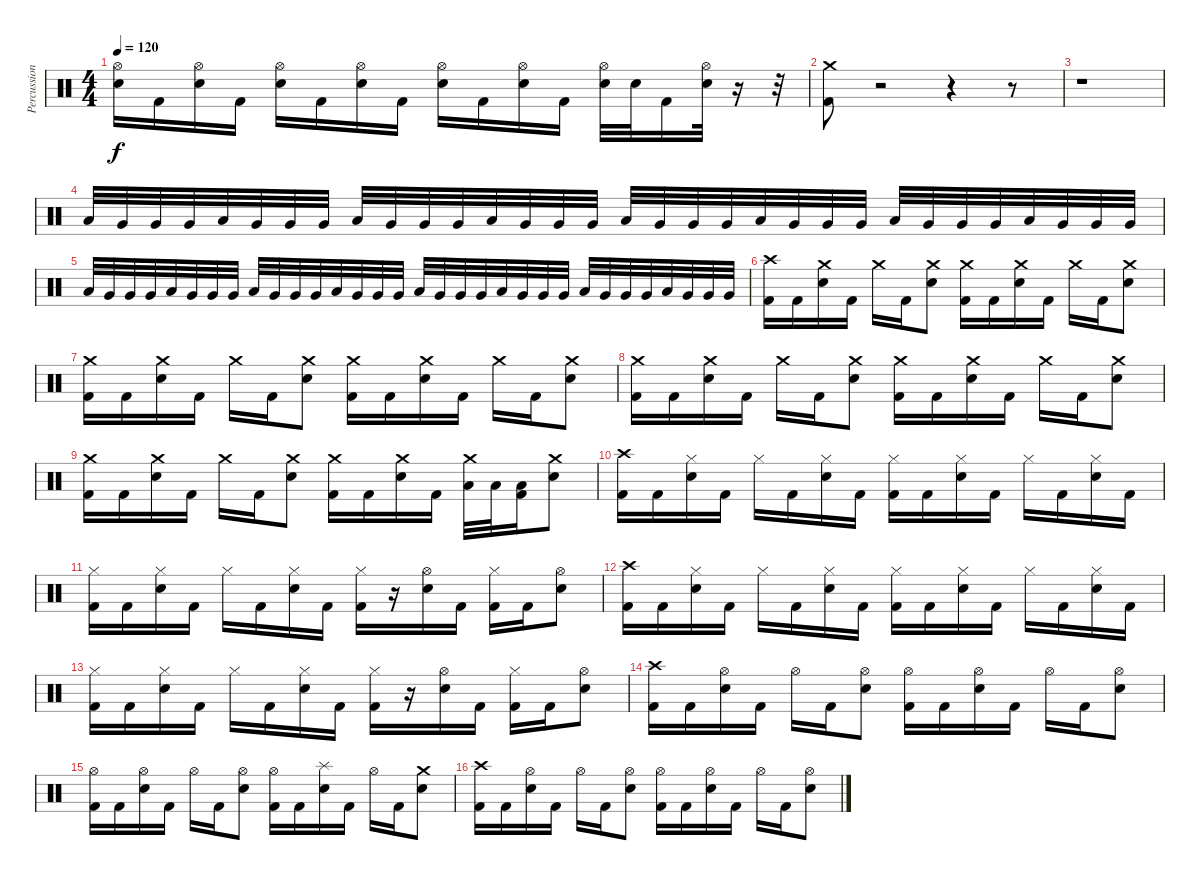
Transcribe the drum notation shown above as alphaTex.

\track ("Percussions" "Percussion") {instrument percussion}
\staff {score}
\articulation defaults
\ts (4 4)
\tempo 120
\clef neutral
\ks c
("Electric Snare (hit)" "Hi-Hat (open)").16{dy f} "Kick (hit) 2".16 ("Hi-Hat (open)" "Electric Snare (hit)").16 "Kick (hit) 2".16 ("Hi-Hat (open)" "Electric Snare (hit)").16 "Kick (hit) 2".16 ("Hi-Hat (open)" "Electric Snare (hit)").16 "Kick (hit) 2".16 ("Electric Snare (hit)" "Hi-Hat (open)").16 "Kick (hit) 2".16 ("Hi-Hat (open)" "Electric Snare (hit)").16 "Kick (hit) 2".16 ("Hi-Hat (open)" "Electric Snare (hit)").32 "Electric Snare (hit)".32 "Kick (hit) 2".16 ("Hi-Hat (open)" "Electric Snare (hit)").32 r.16 r.32 |
("Crash medium (hit)" "Kick (hit) 2").8 r.2 r.4 r.8 |
r.1 |
"Low Tom (hit)".32 "Very Low Tom (hit)".32 "Very Low Tom (hit)".32 "Very Low Tom (hit)".32 "Low Tom (hit)".32 "Very Low Tom (hit)".32 "Very Low Tom (hit)".32 "Very Low Tom (hit)".32 "Low Tom (hit)".32 "Very Low Tom (hit)".32 "Very Low Tom (hit)".32 "Very Low Tom (hit)".32 "Low Tom (hit)".32 "Very Low Tom (hit)".32 "Very Low Tom (hit)".32 "Very Low Tom (hit)".32 "Low Tom (hit)".32 "Very Low Tom (hit)".32 "Very Low Tom (hit)".32 "Very Low Tom (hit)".32 "Low Tom (hit)".32 "Very Low Tom (hit)".32 "Very Low Tom (hit)".32 "Very Low Tom (hit)".32 "Low Tom (hit)".32 "Very Low Tom (hit)".32 "Very Low Tom (hit)".32 "Very Low Tom (hit)".32 "Low Tom (hit)".32 "Very Low Tom (hit)".32 "Very Low Tom (hit)".32 "Very Low Tom (hit)".32 |
"Low Tom (hit)".32 "Very Low Tom (hit)".32 "Very Low Tom (hit)".32 "Very Low Tom (hit)".32 "Low Tom (hit)".32 "Very Low Tom (hit)".32 "Very Low Tom (hit)".32 "Very Low Tom (hit)".32 "Low Tom (hit)".32 "Very Low Tom (hit)".32 "Very Low Tom (hit)".32 "Very Low Tom (hit)".32 "Low Tom (hit)".32 "Very Low Tom (hit)".32 "Very Low Tom (hit)".32 "Very Low Tom (hit)".32 "Low Tom (hit)".32 "Very Low Tom (hit)".32 "Very Low Tom (hit)".32 "Very Low Tom (hit)".32 "Low Tom (hit)".32 "Very Low Tom (hit)".32 "Very Low Tom (hit)".32 "Very Low Tom (hit)".32 "Low Tom (hit)".32 "Very Low Tom (hit)".32 "Very Low Tom (hit)".32 "Very Low Tom (hit)".32 "Low Tom (hit)".32 "Very Low Tom (hit)".32 "Very Low Tom (hit)".32 "Very Low Tom (hit)".32 |
("Kick (hit) 2" "Crash high (hit)").16 "Kick (hit) 2".16 ("Electric Snare (hit)" "Crash medium (hit)").16 "Kick (hit) 2".16 "Crash medium (hit)".16 "Kick (hit) 2".16 ("Electric Snare (hit)" "Crash medium (hit)").8 ("Kick (hit) 2" "Crash medium (hit)").16 "Kick (hit) 2".16 ("Electric Snare (hit)" "Crash medium (hit)").16 "Kick (hit) 2".16 "Crash medium (hit)".16 "Kick (hit) 2".16 ("Electric Snare (hit)" "Crash medium (hit)").8 |
("Kick (hit) 2" "Crash medium (hit)").16 "Kick (hit) 2".16 ("Electric Snare (hit)" "Crash medium (hit)").16 "Kick (hit) 2".16 "Crash medium (hit)".16 "Kick (hit) 2".16 ("Electric Snare (hit)" "Crash medium (hit)").8 ("Kick (hit) 2" "Crash medium (hit)").16 "Kick (hit) 2".16 ("Electric Snare (hit)" "Crash medium (hit)").16 "Kick (hit) 2".16 "Crash medium (hit)".16 "Kick (hit) 2".16 ("Electric Snare (hit)" "Crash medium (hit)").8 |
("Kick (hit) 2" "Crash medium (hit)").16 "Kick (hit) 2".16 ("Electric Snare (hit)" "Crash medium (hit)").16 "Kick (hit) 2".16 "Crash medium (hit)".16 "Kick (hit) 2".16 ("Electric Snare (hit)" "Crash medium (hit)").8 ("Kick (hit) 2" "Crash medium (hit)").16 "Kick (hit) 2".16 ("Electric Snare (hit)" "Crash medium (hit)").16 "Kick (hit) 2".16 "Crash medium (hit)".16 "Kick (hit) 2".16 ("Electric Snare (hit)" "Crash medium (hit)").8 |
("Kick (hit) 2" "Crash medium (hit)").16 "Kick (hit) 2".16 ("Electric Snare (hit)" "Crash medium (hit)").16 "Kick (hit) 2".16 "Crash medium (hit)".16 "Kick (hit) 2".16 ("Electric Snare (hit)" "Crash medium (hit)").8 ("Kick (hit) 2" "Crash medium (hit)").16 "Kick (hit) 2".16 ("Electric Snare (hit)" "Crash medium (hit)").16 "Kick (hit) 2".16 ("Low Tom (hit)" "Crash medium (hit)").32 "Low Tom (hit)".32 ("Kick (hit) 2" "Low Tom (hit)").16 ("Electric Snare (hit)" "Crash medium (hit)").8 |
("Kick (hit) 2" "Crash high (hit)").16 "Kick (hit) 2".16 ("Electric Snare (hit)" "Hi-Hat (closed)").16 "Kick (hit) 2".16 "Hi-Hat (closed)".16 "Kick (hit) 2".16 ("Electric Snare (hit)" "Hi-Hat (closed)").16 "Kick (hit) 2".16 ("Hi-Hat (closed)" "Kick (hit) 2").16 "Kick (hit) 2".16 ("Electric Snare (hit)" "Hi-Hat (closed)").16 "Kick (hit) 2".16 "Hi-Hat (closed)".16 "Kick (hit) 2".16 ("Electric Snare (hit)" "Hi-Hat (closed)").16 "Kick (hit) 2".16 |
("Kick (hit) 2" "Hi-Hat (closed)").16 "Kick (hit) 2".16 ("Electric Snare (hit)" "Hi-Hat (closed)").16 "Kick (hit) 2".16 "Hi-Hat (closed)".16 "Kick (hit) 2".16 ("Electric Snare (hit)" "Hi-Hat (closed)").16 "Kick (hit) 2".16 ("Hi-Hat (closed)" "Kick (hit) 2").16 r.16 ("Electric Snare (hit)" "Hi-Hat (open)").16 "Kick (hit) 2".16 ("Kick (hit) 2" "Hi-Hat (closed)").16 "Kick (hit) 2".16 ("Electric Snare (hit)" "Hi-Hat (open)").8 |
("Kick (hit) 2" "Crash high (hit)").16 "Kick (hit) 2".16 ("Electric Snare (hit)" "Hi-Hat (closed)").16 "Kick (hit) 2".16 "Hi-Hat (closed)".16 "Kick (hit) 2".16 ("Electric Snare (hit)" "Hi-Hat (closed)").16 "Kick (hit) 2".16 ("Hi-Hat (closed)" "Kick (hit) 2").16 "Kick (hit) 2".16 ("Electric Snare (hit)" "Hi-Hat (closed)").16 "Kick (hit) 2".16 "Hi-Hat (closed)".16 "Kick (hit) 2".16 ("Electric Snare (hit)" "Hi-Hat (closed)").16 "Kick (hit) 2".16 |
("Kick (hit) 2" "Hi-Hat (closed)").16 "Kick (hit) 2".16 ("Electric Snare (hit)" "Hi-Hat (closed)").16 "Kick (hit) 2".16 "Hi-Hat (closed)".16 "Kick (hit) 2".16 ("Electric Snare (hit)" "Hi-Hat (closed)").16 "Kick (hit) 2".16 ("Hi-Hat (closed)" "Kick (hit) 2").16 r.16 ("Electric Snare (hit)" "Hi-Hat (open)").16 "Kick (hit) 2".16 ("Kick (hit) 2" "Hi-Hat (closed)").16 "Kick (hit) 2".16 ("Electric Snare (hit)" "Hi-Hat (open)").8 |
("Kick (hit) 2" "Crash high (hit)").16 "Kick (hit) 2".16 ("Electric Snare (hit)" "Hi-Hat (open)").16 "Kick (hit) 2".16 "Hi-Hat (open)".16 "Kick (hit) 2".16 ("Electric Snare (hit)" "Hi-Hat (open)").8 ("Kick (hit) 2" "Hi-Hat (open)").16 "Kick (hit) 2".16 ("Electric Snare (hit)" "Hi-Hat (open)").16 "Kick (hit) 2".16 "Hi-Hat (open)".16 "Kick (hit) 2".16 ("Electric Snare (hit)" "Hi-Hat (open)").8 |
("Kick (hit) 2" "Hi-Hat (open)").16 "Kick (hit) 2".16 ("Electric Snare (hit)" "Hi-Hat (open)").16 "Kick (hit) 2".16 "Hi-Hat (open)".16 "Kick (hit) 2".16 ("Electric Snare (hit)" "Hi-Hat (open)").8 ("Kick (hit) 2" "Hi-Hat (open)").16 "Kick (hit) 2".16 ("Electric Snare (hit)" "Splash (hit)").16 "Kick (hit) 2".16 "Hi-Hat (open)".16 "Kick (hit) 2".16 ("Electric Snare (hit)" "Crash medium (hit)").8 |
("Kick (hit) 2" "Crash high (hit)").16 "Kick (hit) 2".16 ("Electric Snare (hit)" "Hi-Hat (open)").16 "Kick (hit) 2".16 "Hi-Hat (open)".16 "Kick (hit) 2".16 ("Electric Snare (hit)" "Hi-Hat (open)").8 ("Kick (hit) 2" "Hi-Hat (open)").16 "Kick (hit) 2".16 ("Electric Snare (hit)" "Hi-Hat (open)").16 "Kick (hit) 2".16 "Hi-Hat (open)".16 "Kick (hit) 2".16 ("Electric Snare (hit)" "Hi-Hat (open)").8
